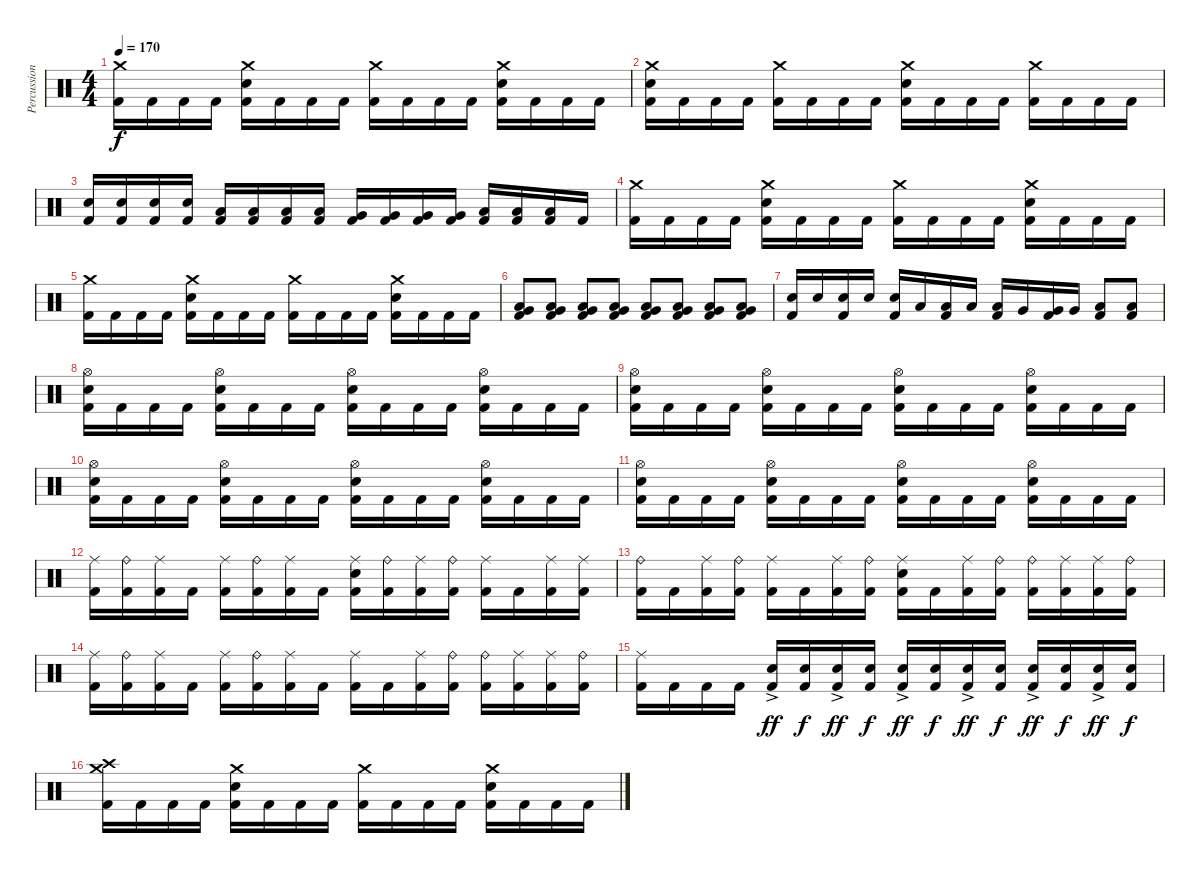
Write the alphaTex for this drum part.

\track ("Percussion" "Percussion") {instrument percussion}
\staff {score}
\articulation defaults
\ts (4 4)
\tempo 170
\clef neutral
\ks c
("Crash medium (hit)" "Kick (hit) 2").16{dy f} "Kick (hit) 2".16 "Kick (hit) 2".16 "Kick (hit) 2".16 ("Crash medium (hit)" "Electric Snare (hit)" "Kick (hit) 2").16 "Kick (hit) 2".16 "Kick (hit) 2".16 "Kick (hit) 2".16 ("Crash medium (hit)" "Kick (hit) 2").16 "Kick (hit) 2".16 "Kick (hit) 2".16 "Kick (hit) 2".16 ("Crash medium (hit)" "Electric Snare (hit)" "Kick (hit) 2").16 "Kick (hit) 2".16 "Kick (hit) 2".16 "Kick (hit) 2".16 |
("Crash medium (hit)" "Electric Snare (hit)" "Kick (hit) 2").16 "Kick (hit) 2".16 "Kick (hit) 2".16 "Kick (hit) 2".16 ("Crash medium (hit)" "Kick (hit) 2").16 "Kick (hit) 2".16 "Kick (hit) 2".16 "Kick (hit) 2".16 ("Crash medium (hit)" "Electric Snare (hit)" "Kick (hit) 2").16 "Kick (hit) 2".16 "Kick (hit) 2".16 "Kick (hit) 2".16 ("Crash medium (hit)" "Kick (hit) 2").16 "Kick (hit) 2".16 "Kick (hit) 2".16 "Kick (hit) 2".16 |
("Electric Snare (hit)" "Kick (hit) 2").16 ("Electric Snare (hit)" "Kick (hit) 2").16 ("Electric Snare (hit)" "Kick (hit) 2").16 ("Electric Snare (hit)" "Kick (hit) 2").16 ("Low Tom (hit)" "Kick (hit) 2").16 ("Low Tom (hit)" "Kick (hit) 2").16 ("Low Tom (hit)" "Kick (hit) 2").16 ("Low Tom (hit)" "Kick (hit) 2").16 ("Very Low Tom (hit)" "Kick (hit) 2").16 ("Very Low Tom (hit)" "Kick (hit) 2").16 ("Very Low Tom (hit)" "Kick (hit) 2").16 ("Very Low Tom (hit)" "Kick (hit) 2").16 ("Low Floor Tom (hit)" "Kick (hit) 2").16 ("Low Floor Tom (hit)" "Kick (hit) 2").16 ("Low Floor Tom (hit)" "Kick (hit) 2").16 "Kick (hit) 2".16 |
("Crash medium (hit)" "Kick (hit) 2").16 "Kick (hit) 2".16 "Kick (hit) 2".16 "Kick (hit) 2".16 ("Crash medium (hit)" "Electric Snare (hit)" "Kick (hit) 2").16 "Kick (hit) 2".16 "Kick (hit) 2".16 "Kick (hit) 2".16 ("Crash medium (hit)" "Kick (hit) 2").16 "Kick (hit) 2".16 "Kick (hit) 2".16 "Kick (hit) 2".16 ("Crash medium (hit)" "Electric Snare (hit)" "Kick (hit) 2").16 "Kick (hit) 2".16 "Kick (hit) 2".16 "Kick (hit) 2".16 |
("Crash medium (hit)" "Kick (hit) 2").16 "Kick (hit) 2".16 "Kick (hit) 2".16 "Kick (hit) 2".16 ("Crash medium (hit)" "Electric Snare (hit)" "Kick (hit) 2").16 "Kick (hit) 2".16 "Kick (hit) 2".16 "Kick (hit) 2".16 ("Crash medium (hit)" "Kick (hit) 2").16 "Kick (hit) 2".16 "Kick (hit) 2".16 "Kick (hit) 2".16 ("Crash medium (hit)" "Electric Snare (hit)" "Kick (hit) 2").16 "Kick (hit) 2".16 "Kick (hit) 2".16 "Kick (hit) 2".16 |
("Very Low Tom (hit)" "Low Floor Tom (hit)" "Kick (hit) 2").8 ("Very Low Tom (hit)" "Low Floor Tom (hit)" "Kick (hit) 2").8 ("Very Low Tom (hit)" "Low Floor Tom (hit)" "Kick (hit) 2").8 ("Very Low Tom (hit)" "Low Floor Tom (hit)" "Kick (hit) 2").8 ("Very Low Tom (hit)" "Low Floor Tom (hit)" "Kick (hit) 2").8 ("Very Low Tom (hit)" "Low Floor Tom (hit)" "Kick (hit) 2").8 ("Very Low Tom (hit)" "Low Floor Tom (hit)" "Kick (hit) 2").8 ("Very Low Tom (hit)" "Low Floor Tom (hit)" "Kick (hit) 2").8 |
("Electric Snare (hit)" "Kick (hit) 2").16 "Electric Snare (hit)".16 ("Electric Snare (hit)" "Kick (hit) 2").16 "Electric Snare (hit)".16 ("Electric Snare (hit)" "Kick (hit) 2").16 "Low Tom (hit)".16 ("Low Tom (hit)" "Kick (hit) 2").16 "Low Tom (hit)".16 ("Low Tom (hit)" "Kick (hit) 2").16 "Very Low Tom (hit)".16 ("Very Low Tom (hit)" "Kick (hit) 2").16 "Very Low Tom (hit)".16 ("Low Floor Tom (hit)" "Kick (hit) 2").8 ("Low Floor Tom (hit)" "Kick (hit) 2").8 |
("Hi-Hat (open)" "Electric Snare (hit)" "Kick (hit) 2").16 "Kick (hit) 2".16 "Kick (hit) 2".16 "Kick (hit) 2".16 ("Hi-Hat (open)" "Electric Snare (hit)" "Kick (hit) 2").16 "Kick (hit) 2".16 "Kick (hit) 2".16 "Kick (hit) 2".16 ("Hi-Hat (open)" "Electric Snare (hit)" "Kick (hit) 2").16 "Kick (hit) 2".16 "Kick (hit) 2".16 "Kick (hit) 2".16 ("Hi-Hat (open)" "Electric Snare (hit)" "Kick (hit) 2").16 "Kick (hit) 2".16 "Kick (hit) 2".16 "Kick (hit) 2".16 |
("Hi-Hat (open)" "Electric Snare (hit)" "Kick (hit) 2").16 "Kick (hit) 2".16 "Kick (hit) 2".16 "Kick (hit) 2".16 ("Hi-Hat (open)" "Electric Snare (hit)" "Kick (hit) 2").16 "Kick (hit) 2".16 "Kick (hit) 2".16 "Kick (hit) 2".16 ("Hi-Hat (open)" "Electric Snare (hit)" "Kick (hit) 2").16 "Kick (hit) 2".16 "Kick (hit) 2".16 "Kick (hit) 2".16 ("Hi-Hat (open)" "Electric Snare (hit)" "Kick (hit) 2").16 "Kick (hit) 2".16 "Kick (hit) 2".16 "Kick (hit) 2".16 |
("Hi-Hat (open)" "Electric Snare (hit)" "Kick (hit) 2").16 "Kick (hit) 2".16 "Kick (hit) 2".16 "Kick (hit) 2".16 ("Hi-Hat (open)" "Electric Snare (hit)" "Kick (hit) 2").16 "Kick (hit) 2".16 "Kick (hit) 2".16 "Kick (hit) 2".16 ("Hi-Hat (open)" "Electric Snare (hit)" "Kick (hit) 2").16 "Kick (hit) 2".16 "Kick (hit) 2".16 "Kick (hit) 2".16 ("Hi-Hat (open)" "Electric Snare (hit)" "Kick (hit) 2").16 "Kick (hit) 2".16 "Kick (hit) 2".16 "Kick (hit) 2".16 |
("Hi-Hat (open)" "Electric Snare (hit)" "Kick (hit) 2").16 "Kick (hit) 2".16 "Kick (hit) 2".16 "Kick (hit) 2".16 ("Hi-Hat (open)" "Electric Snare (hit)" "Kick (hit) 2").16 "Kick (hit) 2".16 "Kick (hit) 2".16 "Kick (hit) 2".16 ("Hi-Hat (open)" "Electric Snare (hit)" "Kick (hit) 2").16 "Kick (hit) 2".16 "Kick (hit) 2".16 "Kick (hit) 2".16 ("Hi-Hat (open)" "Electric Snare (hit)" "Kick (hit) 2").16 "Kick (hit) 2".16 "Kick (hit) 2".16 "Kick (hit) 2".16 |
("Ride (middle)" "Kick (hit) 2").16 ("Ride (bell)" "Kick (hit) 2").16 ("Ride (middle)" "Kick (hit) 2").16 "Kick (hit) 2".16 ("Ride (middle)" "Kick (hit) 2").16 ("Ride (bell)" "Kick (hit) 2").16 ("Ride (middle)" "Kick (hit) 2").16 "Kick (hit) 2".16 ("Ride (middle)" "Electric Snare (hit)" "Kick (hit) 2").16 ("Ride (bell)" "Kick (hit) 2").16 ("Ride (middle)" "Kick (hit) 2").16 ("Ride (bell)" "Kick (hit) 2").16 ("Ride (middle)" "Kick (hit) 2").16 "Kick (hit) 2".16 ("Ride (middle)" "Kick (hit) 2").16 ("Ride (middle)" "Kick (hit) 2").16 |
("Ride (bell)" "Kick (hit) 2").16 "Kick (hit) 2".16 ("Ride (middle)" "Kick (hit) 2").16 ("Ride (bell)" "Kick (hit) 2").16 ("Ride (middle)" "Kick (hit) 2").16 "Kick (hit) 2".16 ("Ride (middle)" "Kick (hit) 2").16 ("Ride (bell)" "Kick (hit) 2").16 ("Ride (middle)" "Electric Snare (hit)" "Kick (hit) 2").16 "Kick (hit) 2".16 ("Ride (middle)" "Kick (hit) 2").16 ("Ride (bell)" "Kick (hit) 2").16 ("Ride (bell)" "Kick (hit) 2").16 ("Ride (middle)" "Kick (hit) 2").16 ("Ride (middle)" "Kick (hit) 2").16 ("Ride (bell)" "Kick (hit) 2").16 |
("Ride (middle)" "Kick (hit) 2").16 ("Ride (bell)" "Kick (hit) 2").16 ("Ride (middle)" "Kick (hit) 2").16 "Kick (hit) 2".16 ("Ride (middle)" "Kick (hit) 2").16 ("Ride (bell)" "Kick (hit) 2").16 ("Ride (middle)" "Kick (hit) 2").16 "Kick (hit) 2".16 ("Ride (middle)" "Kick (hit) 2").16 "Kick (hit) 2".16 ("Ride (middle)" "Kick (hit) 2").16 ("Ride (bell)" "Kick (hit) 2").16 ("Ride (bell)" "Kick (hit) 2").16 ("Ride (middle)" "Kick (hit) 2").16 ("Ride (middle)" "Kick (hit) 2").16 ("Ride (bell)" "Kick (hit) 2").16 |
("Ride (middle)" "Kick (hit) 2").16 "Kick (hit) 2".16 "Kick (hit) 2".16 "Kick (hit) 2".16 ("Electric Snare (hit)"{ac} "Kick (hit) 2").16{dy ff} ("Electric Snare (hit)" "Kick (hit) 2").16{dy f} ("Electric Snare (hit)"{ac} "Kick (hit) 2").16{dy ff} ("Electric Snare (hit)" "Kick (hit) 2").16{dy f} ("Electric Snare (hit)"{ac} "Kick (hit) 2").16{dy ff} ("Electric Snare (hit)" "Kick (hit) 2").16{dy f} ("Electric Snare (hit)"{ac} "Kick (hit) 2").16{dy ff} ("Electric Snare (hit)" "Kick (hit) 2").16{dy f} ("Electric Snare (hit)"{ac} "Kick (hit) 2").16{dy ff} ("Electric Snare (hit)" "Kick (hit) 2").16{dy f} ("Electric Snare (hit)"{ac} "Kick (hit) 2").16{dy ff} ("Electric Snare (hit)" "Kick (hit) 2").16{dy f} |
("Crash medium (hit)" "Crash high (hit)" "Kick (hit) 2").16 "Kick (hit) 2".16 "Kick (hit) 2".16 "Kick (hit) 2".16 ("Crash medium (hit)" "Electric Snare (hit)" "Kick (hit) 2").16 "Kick (hit) 2".16 "Kick (hit) 2".16 "Kick (hit) 2".16 ("Crash medium (hit)" "Kick (hit) 2").16 "Kick (hit) 2".16 "Kick (hit) 2".16 "Kick (hit) 2".16 ("Crash medium (hit)" "Electric Snare (hit)" "Kick (hit) 2").16 "Kick (hit) 2".16 "Kick (hit) 2".16 "Kick (hit) 2".16
